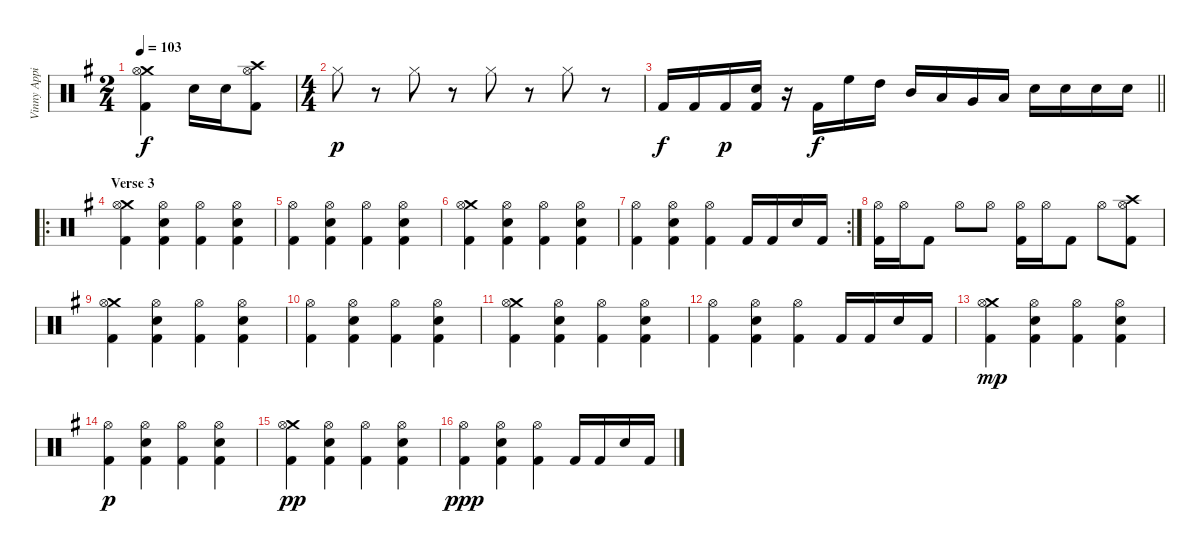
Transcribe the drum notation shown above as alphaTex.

\track ("Vinny Appice" "Vinny Appi") {instrument percussion}
\staff {score}
\articulation defaults
\ts (2 4)
\tempo 103
\clef neutral
\ks g
("Crash medium (hit)" "Hi-Hat (open)" "Kick (hit) 2").4{dy f} "Snare (hit) 2".16 "Snare (hit) 2".16 ("Crash high (hit)" "Hi-Hat (open)" "Kick (hit) 2").8 |
\ts (4 4)
"Hi-Hat (closed)".8{dy p} r.8 "Hi-Hat (closed)".8 r.8 "Hi-Hat (closed)".8 r.8 "Hi-Hat (closed)".8 r.8 |
\barLineRight lightlight "Kick (hit) 2".16{dy f} "Kick (hit) 2".16 "Kick (hit) 2".16{dy p}
("Snare (hit) 2" "Kick (hit) 2").16 r.16 "Kick (hit) 2".16{dy f} "High Floor Tom (hit)".16 "High Tom (hit)".16 "Mid Tom (hit)".16 "Low Tom (hit)".16 "Very Low Tom (hit)".16 "Low Floor Tom (hit)".16 "Electric Snare (hit)".16 "Snare (hit) 2".16 "Snare (hit) 2".16 "Snare (hit) 2".16 |
\ro
\section ("" "Verse 3")
("Crash medium (hit)" "Hi-Hat (open)" "Kick (hit) 2").4 ("Hi-Hat (open)" "Snare (hit) 2" "Kick (hit) 2").4 ("Hi-Hat (open)" "Kick (hit) 2").4 ("Hi-Hat (open)" "Snare (hit) 2" "Kick (hit) 2").4 |
("Hi-Hat (open)" "Kick (hit) 2").4 ("Hi-Hat (open)" "Snare (hit) 2" "Kick (hit) 2").4 ("Hi-Hat (open)" "Kick (hit) 2").4 ("Hi-Hat (open)" "Snare (hit) 2" "Kick (hit) 2").4 |
("Crash medium (hit)" "Hi-Hat (open)" "Kick (hit) 2").4 ("Hi-Hat (open)" "Snare (hit) 2" "Kick (hit) 2").4 ("Hi-Hat (open)" "Kick (hit) 2").4 ("Hi-Hat (open)" "Snare (hit) 2" "Kick (hit) 2").4 |
\rc 2
("Hi-Hat (open)" "Kick (hit) 2").4 ("Hi-Hat (open)" "Snare (hit) 2" "Kick (hit) 2").4 ("Hi-Hat (open)" "Kick (hit) 2").4 "Kick (hit) 2".16 "Kick (hit) 2".16 "Snare (hit) 2".16 "Kick (hit) 2".16 |
("Hi-Hat (open)" "Kick (hit) 2").16 "Hi-Hat (open)".16 "Kick (hit) 2".8 "Hi-Hat (open)".8 "Hi-Hat (open)".8 ("Hi-Hat (open)" "Kick (hit) 2").16 "Hi-Hat (open)".16 "Kick (hit) 2".8 "Hi-Hat (open)".8 ("Crash high (hit)" "Hi-Hat (open)" "Kick (hit) 2").8 |
("Crash medium (hit)" "Hi-Hat (open)" "Kick (hit) 2").4 ("Hi-Hat (open)" "Snare (hit) 2" "Kick (hit) 2").4 ("Hi-Hat (open)" "Kick (hit) 2").4 ("Hi-Hat (open)" "Snare (hit) 2" "Kick (hit) 2").4 |
("Hi-Hat (open)" "Kick (hit) 2").4 ("Hi-Hat (open)" "Snare (hit) 2" "Kick (hit) 2").4 ("Hi-Hat (open)" "Kick (hit) 2").4 ("Hi-Hat (open)" "Snare (hit) 2" "Kick (hit) 2").4 |
("Crash medium (hit)" "Hi-Hat (open)" "Kick (hit) 2").4 ("Hi-Hat (open)" "Snare (hit) 2" "Kick (hit) 2").4 ("Hi-Hat (open)" "Kick (hit) 2").4 ("Hi-Hat (open)" "Snare (hit) 2" "Kick (hit) 2").4 |
("Hi-Hat (open)" "Kick (hit) 2").4 ("Hi-Hat (open)" "Snare (hit) 2" "Kick (hit) 2").4 ("Hi-Hat (open)" "Kick (hit) 2").4 "Kick (hit) 2".16 "Kick (hit) 2".16 "Snare (hit) 2".16 "Kick (hit) 2".16 |
("Crash medium (hit)" "Hi-Hat (open)" "Kick (hit) 2").4{dy mp} ("Hi-Hat (open)" "Snare (hit) 2" "Kick (hit) 2").4 ("Hi-Hat (open)" "Kick (hit) 2").4 ("Hi-Hat (open)" "Snare (hit) 2" "Kick (hit) 2").4 |
("Hi-Hat (open)" "Kick (hit) 2").4{dy p} ("Hi-Hat (open)" "Snare (hit) 2" "Kick (hit) 2").4 ("Hi-Hat (open)" "Kick (hit) 2").4 ("Hi-Hat (open)" "Snare (hit) 2" "Kick (hit) 2").4 |
("Crash medium (hit)" "Hi-Hat (open)" "Kick (hit) 2").4{dy pp} ("Hi-Hat (open)" "Snare (hit) 2" "Kick (hit) 2").4 ("Hi-Hat (open)" "Kick (hit) 2").4 ("Hi-Hat (open)" "Snare (hit) 2" "Kick (hit) 2").4 |
("Hi-Hat (open)" "Kick (hit) 2").4{dy ppp} ("Hi-Hat (open)" "Snare (hit) 2" "Kick (hit) 2").4 ("Hi-Hat (open)" "Kick (hit) 2").4 "Kick (hit) 2".16 "Kick (hit) 2".16 "Snare (hit) 2".16 "Kick (hit) 2".16
